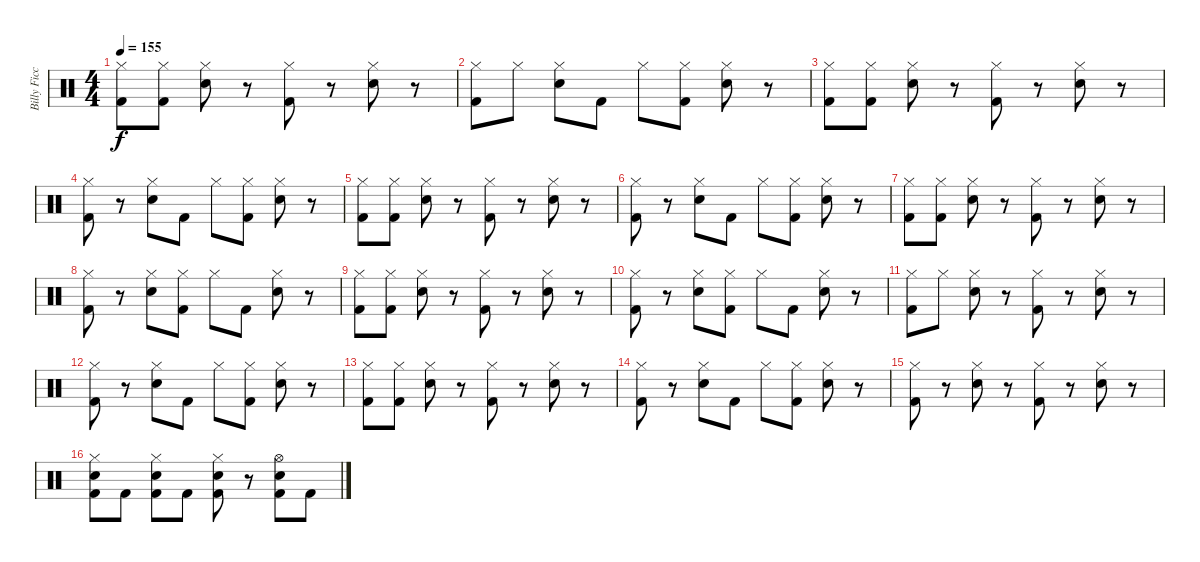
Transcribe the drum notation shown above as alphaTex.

\track ("Billy Ficca" "Billy Ficc") {instrument percussion}
\staff {score}
\articulation defaults
\ts (4 4)
\tempo 155
\clef neutral
\ks c
("Hi-Hat (closed)" "Kick (hit) 2").8{dy f} ("Hi-Hat (closed)" "Kick (hit) 2").8 ("Hi-Hat (closed)" "Electric Snare (hit)").8 r.8 ("Hi-Hat (closed)" "Kick (hit) 2").8 r.8 ("Hi-Hat (closed)" "Electric Snare (hit)").8 r.8 |
("Hi-Hat (closed)" "Kick (hit) 2").8 "Hi-Hat (closed)".8 ("Hi-Hat (closed)" "Electric Snare (hit)").8 "Kick (hit) 2".8 "Hi-Hat (closed)".8 ("Hi-Hat (closed)" "Kick (hit) 2").8 ("Hi-Hat (closed)" "Electric Snare (hit)").8 r.8 |
("Hi-Hat (closed)" "Kick (hit) 2").8 ("Hi-Hat (closed)" "Kick (hit) 2").8 ("Hi-Hat (closed)" "Electric Snare (hit)").8 r.8 ("Hi-Hat (closed)" "Kick (hit) 2").8 r.8 ("Hi-Hat (closed)" "Electric Snare (hit)").8 r.8 |
("Hi-Hat (closed)" "Kick (hit) 2").8 r.8 ("Hi-Hat (closed)" "Electric Snare (hit)").8 "Kick (hit) 2".8 "Hi-Hat (closed)".8 ("Hi-Hat (closed)" "Kick (hit) 2").8 ("Hi-Hat (closed)" "Electric Snare (hit)").8 r.8 |
("Hi-Hat (closed)" "Kick (hit) 2").8 ("Hi-Hat (closed)" "Kick (hit) 2").8 ("Hi-Hat (closed)" "Electric Snare (hit)").8 r.8 ("Hi-Hat (closed)" "Kick (hit) 2").8 r.8 ("Hi-Hat (closed)" "Electric Snare (hit)").8 r.8 |
("Hi-Hat (closed)" "Kick (hit) 2").8 r.8 ("Hi-Hat (closed)" "Electric Snare (hit)").8 "Kick (hit) 2".8 "Hi-Hat (closed)".8 ("Hi-Hat (closed)" "Kick (hit) 2").8 ("Hi-Hat (closed)" "Electric Snare (hit)").8 r.8 |
("Hi-Hat (closed)" "Kick (hit) 2").8 ("Hi-Hat (closed)" "Kick (hit) 2").8 ("Hi-Hat (closed)" "Electric Snare (hit)").8 r.8 ("Hi-Hat (closed)" "Kick (hit) 2").8 r.8 ("Hi-Hat (closed)" "Electric Snare (hit)").8 r.8 |
("Hi-Hat (closed)" "Kick (hit) 2").8 r.8 ("Hi-Hat (closed)" "Electric Snare (hit)").8 ("Hi-Hat (closed)" "Kick (hit) 2").8 "Hi-Hat (closed)".8 "Kick (hit) 2".8 ("Hi-Hat (closed)" "Electric Snare (hit)").8 r.8 |
("Hi-Hat (closed)" "Kick (hit) 2").8 ("Hi-Hat (closed)" "Kick (hit) 2").8 ("Hi-Hat (closed)" "Electric Snare (hit)").8 r.8 ("Hi-Hat (closed)" "Kick (hit) 2").8 r.8 ("Hi-Hat (closed)" "Electric Snare (hit)").8 r.8 |
("Hi-Hat (closed)" "Kick (hit) 2").8 r.8 ("Hi-Hat (closed)" "Electric Snare (hit)").8 ("Hi-Hat (closed)" "Kick (hit) 2").8 "Hi-Hat (closed)".8 "Kick (hit) 2".8 ("Hi-Hat (closed)" "Electric Snare (hit)").8 r.8 |
("Hi-Hat (closed)" "Kick (hit) 2").8 "Hi-Hat (closed)".8 ("Hi-Hat (closed)" "Electric Snare (hit)").8 r.8 ("Hi-Hat (closed)" "Kick (hit) 2").8 r.8 ("Hi-Hat (closed)" "Electric Snare (hit)").8 r.8 |
("Hi-Hat (closed)" "Kick (hit) 2").8 r.8 ("Hi-Hat (closed)" "Electric Snare (hit)").8 "Kick (hit) 2".8 "Hi-Hat (closed)".8 ("Hi-Hat (closed)" "Kick (hit) 2").8 ("Hi-Hat (closed)" "Electric Snare (hit)").8 r.8 |
("Hi-Hat (closed)" "Kick (hit) 2").8 ("Hi-Hat (closed)" "Kick (hit) 2").8 ("Hi-Hat (closed)" "Electric Snare (hit)").8 r.8 ("Hi-Hat (closed)" "Kick (hit) 2").8 r.8 ("Hi-Hat (closed)" "Electric Snare (hit)").8 r.8 |
("Hi-Hat (closed)" "Kick (hit) 2").8 r.8 ("Hi-Hat (closed)" "Electric Snare (hit)").8 "Kick (hit) 2".8 "Hi-Hat (closed)".8 ("Hi-Hat (closed)" "Kick (hit) 2").8 ("Hi-Hat (closed)" "Electric Snare (hit)").8 r.8 |
("Hi-Hat (closed)" "Kick (hit) 2").8 r.8 ("Hi-Hat (closed)" "Electric Snare (hit)").8 r.8 ("Hi-Hat (closed)" "Kick (hit) 2").8 r.8 ("Hi-Hat (closed)" "Electric Snare (hit)").8 r.8 |
("Hi-Hat (closed)" "Electric Snare (hit)" "Kick (hit) 2").8 "Kick (hit) 2".8 ("Hi-Hat (closed)" "Electric Snare (hit)" "Kick (hit) 2").8 "Kick (hit) 2".8 ("Hi-Hat (closed)" "Electric Snare (hit)" "Kick (hit) 2").8 r.8 ("Hi-Hat (open)" "Electric Snare (hit)" "Kick (hit) 2").8 "Kick (hit) 2".8
